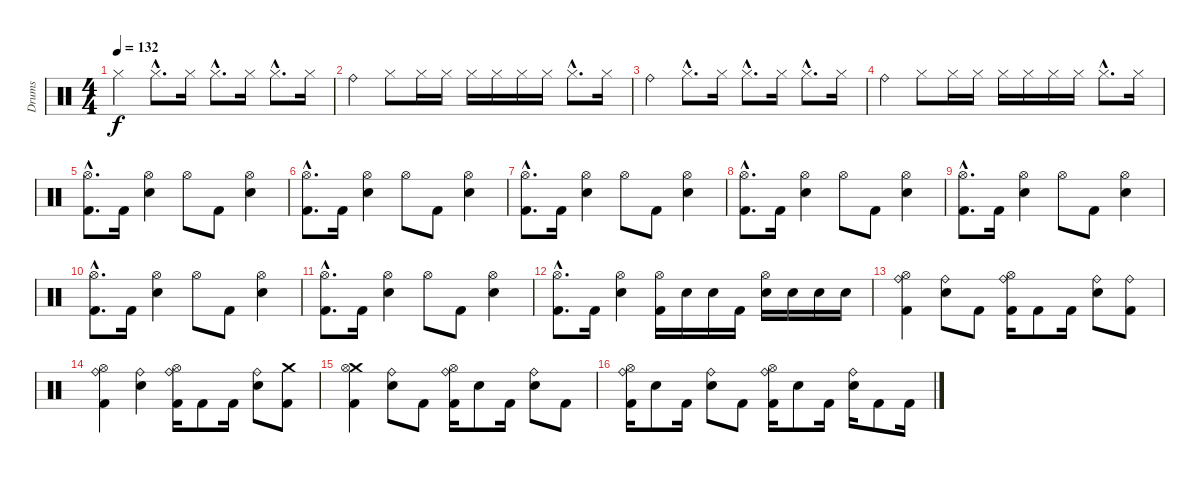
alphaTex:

\track ("Drums" "Drums") {instrument percussion}
\staff {score}
\articulation defaults
\ts (4 4)
\tempo 132
\clef neutral
\ks c "Hi-Hat (closed)".4{dy f} "Hi-Hat (closed)"{hac}.8{d} "Hi-Hat (closed)".16 "Hi-Hat (closed)"{hac}.8{d} "Hi-Hat (closed)".16 "Hi-Hat (closed)"{hac}.8{d} "Hi-Hat (closed)".16
|
"Ride (bell)".4 "Hi-Hat (closed)".8 "Hi-Hat (closed)".16 "Hi-Hat (closed)".16 "Hi-Hat (closed)".16 "Hi-Hat (closed)".16 "Hi-Hat (closed)".16 "Hi-Hat (closed)".16 "Hi-Hat (closed)"{hac}.8{d} "Hi-Hat (closed)".16 |
"Ride (bell)".4 "Hi-Hat (closed)"{hac}.8{d} "Hi-Hat (closed)".16 "Hi-Hat (closed)"{hac}.8{d} "Hi-Hat (closed)".16 "Hi-Hat (closed)"{hac}.8{d} "Hi-Hat (closed)".16 |
"Ride (bell)".4 "Hi-Hat (closed)".8 "Hi-Hat (closed)".16 "Hi-Hat (closed)".16 "Hi-Hat (closed)".16 "Hi-Hat (closed)".16 "Hi-Hat (closed)".16 "Hi-Hat (closed)".16 "Hi-Hat (closed)"{hac}.8{d} "Hi-Hat (closed)".16 |
("Hi-Hat (open)"{hac} "Kick (hit) 2"{hac}).8{d} "Kick (hit) 2".16 ("Hi-Hat (open)" "Electric Snare (hit)").4 "Hi-Hat (open)".8 "Kick (hit) 2".8 ("Hi-Hat (open)" "Electric Snare (hit)").4 |
("Hi-Hat (open)"{hac} "Kick (hit) 2"{hac}).8{d} "Kick (hit) 2".16 ("Hi-Hat (open)" "Electric Snare (hit)").4 "Hi-Hat (open)".8 "Kick (hit) 2".8 ("Hi-Hat (open)" "Electric Snare (hit)").4 |
("Hi-Hat (open)"{hac} "Kick (hit) 2"{hac}).8{d} "Kick (hit) 2".16 ("Hi-Hat (open)" "Electric Snare (hit)").4 "Hi-Hat (open)".8 "Kick (hit) 2".8 ("Hi-Hat (open)" "Electric Snare (hit)").4 |
("Hi-Hat (open)"{hac} "Kick (hit) 2"{hac}).8{d} "Kick (hit) 2".16 ("Hi-Hat (open)" "Electric Snare (hit)").4 "Hi-Hat (open)".8 "Kick (hit) 2".8 ("Hi-Hat (open)" "Electric Snare (hit)").4 |
("Hi-Hat (open)"{hac} "Kick (hit) 2"{hac}).8{d} "Kick (hit) 2".16 ("Hi-Hat (open)" "Electric Snare (hit)").4 "Hi-Hat (open)".8 "Kick (hit) 2".8 ("Hi-Hat (open)" "Electric Snare (hit)").4 |
("Hi-Hat (open)"{hac} "Kick (hit) 2"{hac}).8{d} "Kick (hit) 2".16 ("Hi-Hat (open)" "Electric Snare (hit)").4 "Hi-Hat (open)".8 "Kick (hit) 2".8 ("Hi-Hat (open)" "Electric Snare (hit)").4 |
("Hi-Hat (open)"{hac} "Kick (hit) 2"{hac}).8{d} "Kick (hit) 2".16 ("Hi-Hat (open)" "Electric Snare (hit)").4 "Hi-Hat (open)".8 "Kick (hit) 2".8 ("Hi-Hat (open)" "Electric Snare (hit)").4 |
("Hi-Hat (open)"{hac} "Kick (hit) 2"{hac}).8{d} "Kick (hit) 2".16 ("Hi-Hat (open)" "Electric Snare (hit)").4 ("Hi-Hat (open)" "Kick (hit) 2").16 "Electric Snare (hit)".16 "Electric Snare (hit)".16 "Kick (hit) 2".16 ("Hi-Hat (open)" "Electric Snare (hit)").16 "Electric Snare (hit)".16 "Electric Snare (hit)".16 "Electric Snare (hit)".16 |
("Ride (bell)" "Hi-Hat (open)" "Kick (hit) 2").4 ("Ride (bell)" "Electric Snare (hit)").8 "Kick (hit) 2".8 ("Ride (bell)" "Hi-Hat (open)" "Kick (hit) 2").16 "Kick (hit) 2".8 "Kick (hit) 2".16 ("Ride (bell)" "Electric Snare (hit)").8 ("Ride (bell)" "Kick (hit) 2").8 |
("Ride (bell)" "Hi-Hat (open)" "Kick (hit) 2").4 ("Ride (bell)" "Electric Snare (hit)").4 ("Ride (bell)" "Hi-Hat (open)" "Kick (hit) 2").16 "Kick (hit) 2".8 "Kick (hit) 2".16 ("Ride (bell)" "Electric Snare (hit)").8 ("Crash medium (hit)" "Kick (hit) 2").8 |
("Crash medium (hit)" "Hi-Hat (open)" "Kick (hit) 2").4 ("Ride (bell)" "Electric Snare (hit)").8 "Kick (hit) 2".8 ("Ride (bell)" "Hi-Hat (open)" "Kick (hit) 2").16 "Electric Snare (hit)".8 "Kick (hit) 2".16 ("Ride (bell)" "Electric Snare (hit)").8 "Kick (hit) 2".8 |
("Ride (bell)" "Hi-Hat (open)" "Kick (hit) 2").16 "Electric Snare (hit)".8 "Kick (hit) 2".16 ("Ride (bell)" "Electric Snare (hit)").8 "Kick (hit) 2".8 ("Ride (bell)" "Hi-Hat (open)" "Kick (hit) 2").16 "Electric Snare (hit)".8 "Kick (hit) 2".16 ("Ride (bell)" "Electric Snare (hit)").16 "Kick (hit) 2".8 "Kick (hit) 2".16
